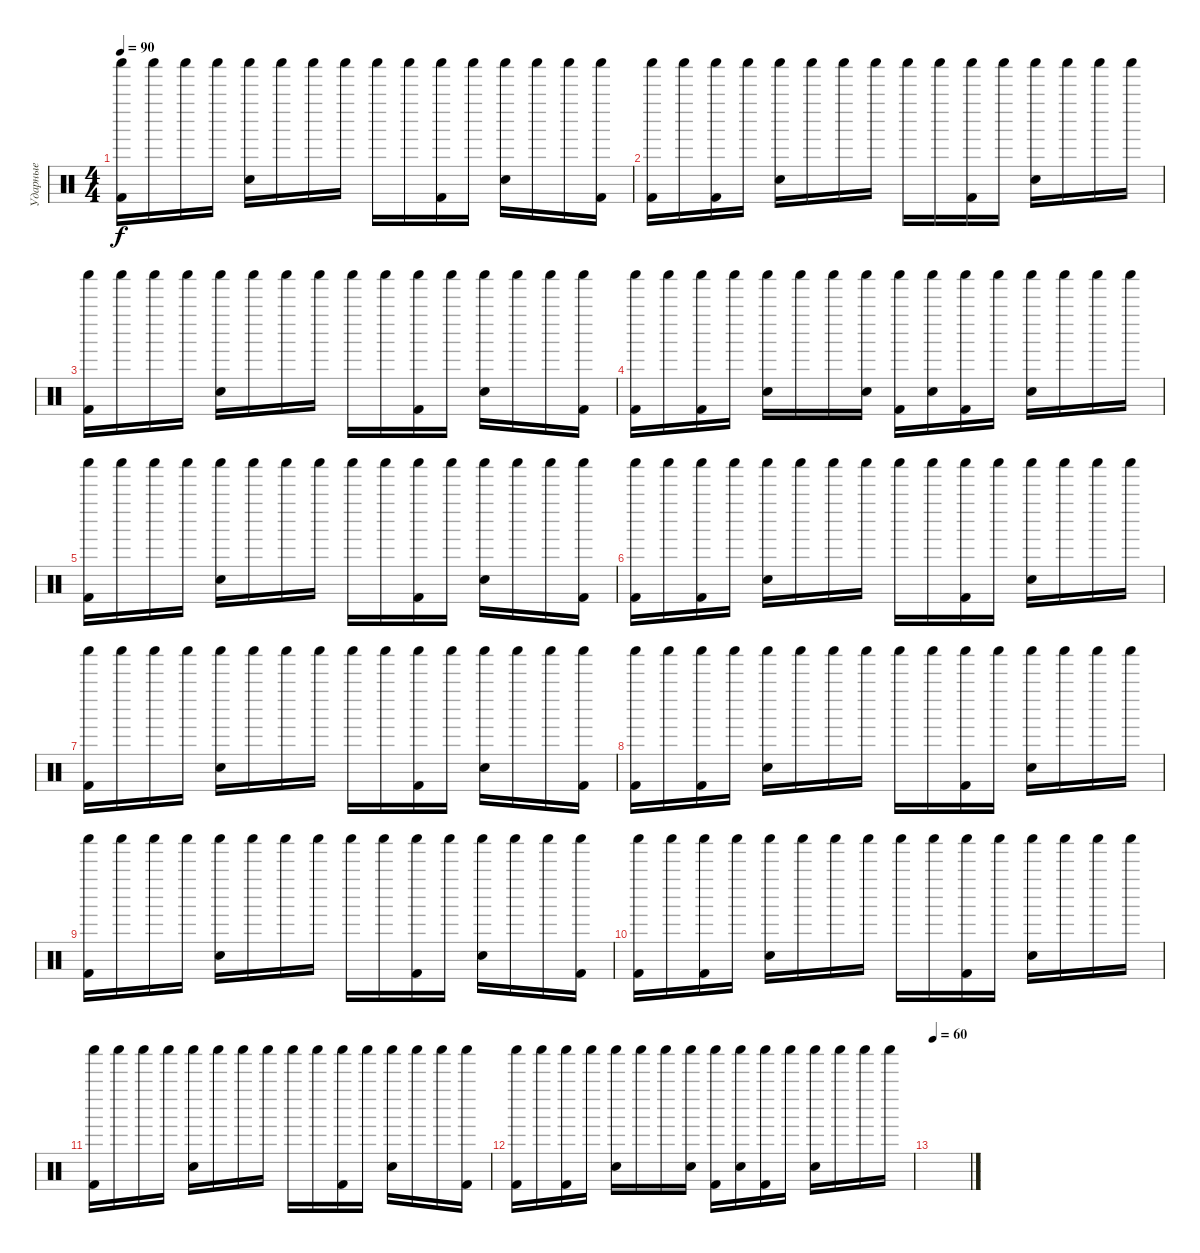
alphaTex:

\track ("Ударные" "Ударные") {instrument percussion}
\staff {score}
\articulation defaults
\ts (4 4)
\tempo 90
\clef neutral
\ks c
("Shaker (hit)" "Kick (hit) 2").16{dy f} "Shaker (hit)".16 "Shaker (hit)".16 "Shaker (hit)".16 ("Shaker (hit)" "Electric Snare (hit)").16 "Shaker (hit)".16 "Shaker (hit)".16 "Shaker (hit)".16 "Shaker (hit)".16 "Shaker (hit)".16 ("Shaker (hit)" "Kick (hit) 2").16 "Shaker (hit)".16 ("Shaker (hit)" "Electric Snare (hit)").16 "Shaker (hit)".16 "Shaker (hit)".16 ("Shaker (hit)" "Kick (hit) 2").16 |
("Shaker (hit)" "Kick (hit) 2").16 "Shaker (hit)".16 ("Shaker (hit)" "Kick (hit) 2").16 "Shaker (hit)".16 ("Shaker (hit)" "Electric Snare (hit)").16 "Shaker (hit)".16 "Shaker (hit)".16 "Shaker (hit)".16 "Shaker (hit)".16 "Shaker (hit)".16 ("Shaker (hit)" "Kick (hit) 2").16 "Shaker (hit)".16 ("Shaker (hit)" "Electric Snare (hit)").16 "Shaker (hit)".16 "Shaker (hit)".16 "Shaker (hit)".16 |
("Shaker (hit)" "Kick (hit) 2").16 "Shaker (hit)".16 "Shaker (hit)".16 "Shaker (hit)".16 ("Shaker (hit)" "Electric Snare (hit)").16 "Shaker (hit)".16 "Shaker (hit)".16 "Shaker (hit)".16 "Shaker (hit)".16 "Shaker (hit)".16 ("Shaker (hit)" "Kick (hit) 2").16 "Shaker (hit)".16 ("Shaker (hit)" "Electric Snare (hit)").16 "Shaker (hit)".16 "Shaker (hit)".16 ("Shaker (hit)" "Kick (hit) 2").16 |
("Shaker (hit)" "Kick (hit) 2").16 "Shaker (hit)".16 ("Shaker (hit)" "Kick (hit) 2").16 "Shaker (hit)".16 ("Shaker (hit)" "Electric Snare (hit)").16 "Shaker (hit)".16 "Shaker (hit)".16 ("Shaker (hit)" "Electric Snare (hit)").16 ("Shaker (hit)" "Kick (hit) 2").16 ("Shaker (hit)" "Electric Snare (hit)").16 ("Shaker (hit)" "Kick (hit) 2").16 "Shaker (hit)".16 ("Shaker (hit)" "Electric Snare (hit)").16 "Shaker (hit)".16 "Shaker (hit)".16 "Shaker (hit)".16 |
("Shaker (hit)" "Kick (hit) 2").16 "Shaker (hit)".16 "Shaker (hit)".16 "Shaker (hit)".16 ("Shaker (hit)" "Electric Snare (hit)").16 "Shaker (hit)".16 "Shaker (hit)".16 "Shaker (hit)".16 "Shaker (hit)".16 "Shaker (hit)".16 ("Shaker (hit)" "Kick (hit) 2").16 "Shaker (hit)".16 ("Shaker (hit)" "Electric Snare (hit)").16 "Shaker (hit)".16 "Shaker (hit)".16 ("Shaker (hit)" "Kick (hit) 2").16 |
("Shaker (hit)" "Kick (hit) 2").16 "Shaker (hit)".16 ("Shaker (hit)" "Kick (hit) 2").16 "Shaker (hit)".16 ("Shaker (hit)" "Electric Snare (hit)").16 "Shaker (hit)".16 "Shaker (hit)".16 "Shaker (hit)".16 "Shaker (hit)".16 "Shaker (hit)".16 ("Shaker (hit)" "Kick (hit) 2").16 "Shaker (hit)".16 ("Shaker (hit)" "Electric Snare (hit)").16 "Shaker (hit)".16 "Shaker (hit)".16 "Shaker (hit)".16 |
("Shaker (hit)" "Kick (hit) 2").16 "Shaker (hit)".16 "Shaker (hit)".16 "Shaker (hit)".16 ("Shaker (hit)" "Electric Snare (hit)").16 "Shaker (hit)".16 "Shaker (hit)".16 "Shaker (hit)".16 "Shaker (hit)".16 "Shaker (hit)".16 ("Shaker (hit)" "Kick (hit) 2").16 "Shaker (hit)".16 ("Shaker (hit)" "Electric Snare (hit)").16 "Shaker (hit)".16 "Shaker (hit)".16 ("Shaker (hit)" "Kick (hit) 2").16 |
("Shaker (hit)" "Kick (hit) 2").16 "Shaker (hit)".16 ("Shaker (hit)" "Kick (hit) 2").16 "Shaker (hit)".16 ("Shaker (hit)" "Electric Snare (hit)").16 "Shaker (hit)".16 "Shaker (hit)".16 "Shaker (hit)".16 "Shaker (hit)".16 "Shaker (hit)".16 ("Shaker (hit)" "Kick (hit) 2").16 "Shaker (hit)".16 ("Shaker (hit)" "Electric Snare (hit)").16 "Shaker (hit)".16 "Shaker (hit)".16 "Shaker (hit)".16 |
("Shaker (hit)" "Kick (hit) 2").16 "Shaker (hit)".16 "Shaker (hit)".16 "Shaker (hit)".16 ("Shaker (hit)" "Electric Snare (hit)").16 "Shaker (hit)".16 "Shaker (hit)".16 "Shaker (hit)".16 "Shaker (hit)".16 "Shaker (hit)".16 ("Shaker (hit)" "Kick (hit) 2").16 "Shaker (hit)".16 ("Shaker (hit)" "Electric Snare (hit)").16 "Shaker (hit)".16 "Shaker (hit)".16 ("Shaker (hit)" "Kick (hit) 2").16 |
("Shaker (hit)" "Kick (hit) 2").16 "Shaker (hit)".16 ("Shaker (hit)" "Kick (hit) 2").16 "Shaker (hit)".16 ("Shaker (hit)" "Electric Snare (hit)").16 "Shaker (hit)".16 "Shaker (hit)".16 "Shaker (hit)".16 "Shaker (hit)".16 "Shaker (hit)".16 ("Shaker (hit)" "Kick (hit) 2").16 "Shaker (hit)".16 ("Shaker (hit)" "Electric Snare (hit)").16 "Shaker (hit)".16 "Shaker (hit)".16 "Shaker (hit)".16 |
("Shaker (hit)" "Kick (hit) 2").16 "Shaker (hit)".16 "Shaker (hit)".16 "Shaker (hit)".16 ("Shaker (hit)" "Electric Snare (hit)").16 "Shaker (hit)".16 "Shaker (hit)".16 "Shaker (hit)".16 "Shaker (hit)".16 "Shaker (hit)".16 ("Shaker (hit)" "Kick (hit) 2").16 "Shaker (hit)".16 ("Shaker (hit)" "Electric Snare (hit)").16 "Shaker (hit)".16 "Shaker (hit)".16 ("Shaker (hit)" "Kick (hit) 2").16 |
("Shaker (hit)" "Kick (hit) 2").16 "Shaker (hit)".16 ("Shaker (hit)" "Kick (hit) 2").16 "Shaker (hit)".16 ("Shaker (hit)" "Electric Snare (hit)").16 "Shaker (hit)".16 "Shaker (hit)".16 ("Shaker (hit)" "Electric Snare (hit)").16 ("Shaker (hit)" "Kick (hit) 2").16 ("Shaker (hit)" "Electric Snare (hit)").16 ("Shaker (hit)" "Kick (hit) 2").16 "Shaker (hit)".16 ("Shaker (hit)" "Electric Snare (hit)").16 "Shaker (hit)".16 "Shaker (hit)".16 "Shaker (hit)".16 |
\tempo 60
